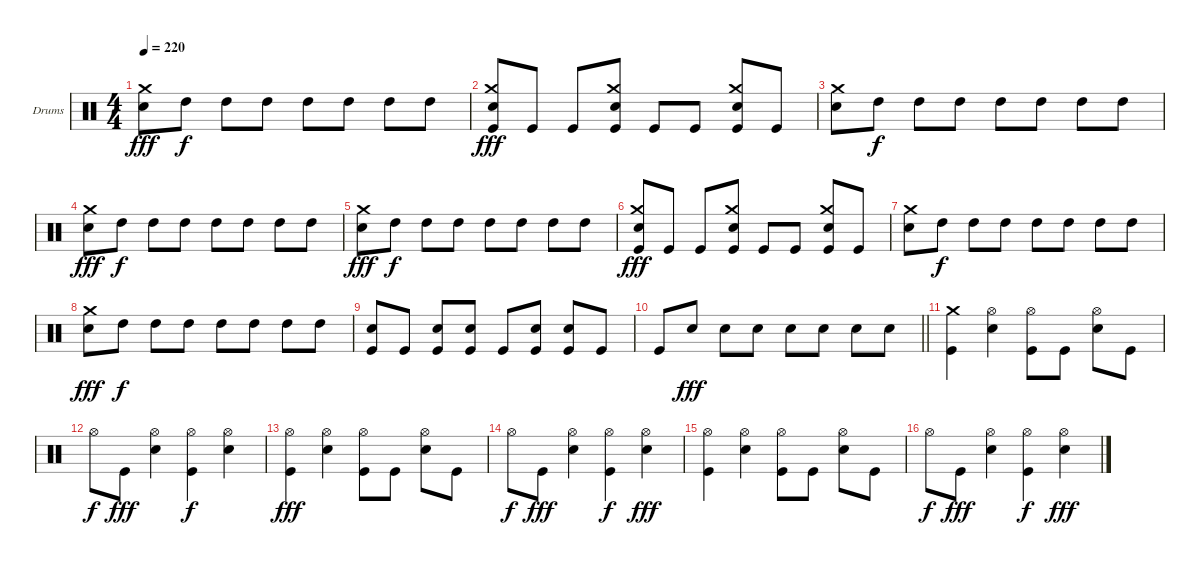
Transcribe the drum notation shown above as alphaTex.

\bracketExtendMode groupsimilarinstruments
\firstSystemTrackNameOrientation horizontal
\otherSystemsTrackNameOrientation horizontal
\track ("Stefan Schwarzmann" "Drums") {instrument percussion}
\staff {score}
\articulation defaults
\ts (4 4)
\tempo 220
\clef neutral
\ks c
("Snare (hit) 2" "Crash medium (hit)").8{dy fff} "High Tom (hit)".8{dy f} "High Tom (hit)".8 "High Tom (hit)".8 "High Tom (hit)".8 "High Tom (hit)".8 "High Tom (hit)".8 "High Tom (hit)".8 |
("Kick (hit)" "Snare (hit) 2" "Crash medium (hit)").8{dy fff} "Kick (hit)".8 "Kick (hit)".8 ("Kick (hit)" "Snare (hit) 2" "Crash medium (hit)").8 "Kick (hit)".8 "Kick (hit)".8 ("Kick (hit)" "Snare (hit) 2" "Crash medium (hit)").8 "Kick (hit)".8 |
("Snare (hit) 2" "Crash medium (hit)").8 "High Tom (hit)".8{dy f} "High Tom (hit)".8 "High Tom (hit)".8 "High Tom (hit)".8 "High Tom (hit)".8 "High Tom (hit)".8 "High Tom (hit)".8 |
("Snare (hit) 2" "Crash medium (hit)").8{dy fff} "High Tom (hit)".8{dy f} "High Tom (hit)".8 "High Tom (hit)".8 "High Tom (hit)".8 "High Tom (hit)".8 "High Tom (hit)".8 "High Tom (hit)".8 |
("Snare (hit) 2" "Crash medium (hit)").8{dy fff} "High Tom (hit)".8{dy f} "High Tom (hit)".8 "High Tom (hit)".8 "High Tom (hit)".8 "High Tom (hit)".8 "High Tom (hit)".8 "High Tom (hit)".8 |
("Kick (hit)" "Snare (hit) 2" "Crash medium (hit)").8{dy fff} "Kick (hit)".8 "Kick (hit)".8 ("Kick (hit)" "Snare (hit) 2" "Crash medium (hit)").8 "Kick (hit)".8 "Kick (hit)".8 ("Kick (hit)" "Snare (hit) 2" "Crash medium (hit)").8 "Kick (hit)".8 |
("Snare (hit) 2" "Crash medium (hit)").8 "High Tom (hit)".8{dy f} "High Tom (hit)".8 "High Tom (hit)".8 "High Tom (hit)".8 "High Tom (hit)".8 "High Tom (hit)".8 "High Tom (hit)".8 |
("Snare (hit) 2" "Crash medium (hit)").8{dy fff} "High Tom (hit)".8{dy f} "High Tom (hit)".8 "High Tom (hit)".8 "High Tom (hit)".8 "High Tom (hit)".8 "High Tom (hit)".8 "High Tom (hit)".8 |
("Kick (hit)" "Snare (hit) 2").8 "Kick (hit)".8 ("Kick (hit)" "Snare (hit) 2").8 ("Kick (hit)" "Snare (hit) 2").8 "Kick (hit)".8 ("Kick (hit)" "Snare (hit) 2").8 ("Kick (hit)" "Snare (hit) 2").8 "Kick (hit)".8 |
\barLineRight lightlight "Kick (hit)".8 "Snare (hit) 2".8{dy fff} "Snare (hit) 2".8 "Snare (hit) 2".8 "Snare (hit) 2".8 "Snare (hit) 2".8 "Snare (hit) 2".8 "Snare (hit) 2".8
|
("Kick (hit)" "Crash medium (hit)").4 ("Snare (hit) 2" "Hi-Hat (open)").4 ("Kick (hit)" "Hi-Hat (open)").8 "Kick (hit)".8 ("Snare (hit) 2" "Hi-Hat (open)").8 "Kick (hit)".8 |
"Hi-Hat (open)".8{dy f} "Kick (hit)".8{dy fff} ("Snare (hit) 2" "Hi-Hat (open)").4 ("Kick (hit)" "Hi-Hat (open)").4{dy f} ("Snare (hit) 2" "Hi-Hat (open)").4 |
("Kick (hit)" "Hi-Hat (open)").4{dy fff} ("Snare (hit) 2" "Hi-Hat (open)").4 ("Kick (hit)" "Hi-Hat (open)").8 "Kick (hit)".8 ("Snare (hit) 2" "Hi-Hat (open)").8 "Kick (hit)".8 |
"Hi-Hat (open)".8{dy f} "Kick (hit)".8{dy fff} ("Snare (hit) 2" "Hi-Hat (open)").4 ("Kick (hit)" "Hi-Hat (open)").4{dy f} ("Snare (hit) 2" "Hi-Hat (open)").4{dy fff} |
("Kick (hit)" "Hi-Hat (open)").4 ("Snare (hit) 2" "Hi-Hat (open)").4 ("Kick (hit)" "Hi-Hat (open)").8 "Kick (hit)".8 ("Snare (hit) 2" "Hi-Hat (open)").8 "Kick (hit)".8 |
"Hi-Hat (open)".8{dy f} "Kick (hit)".8{dy fff} ("Snare (hit) 2" "Hi-Hat (open)").4 ("Kick (hit)" "Hi-Hat (open)").4{dy f} ("Snare (hit) 2" "Hi-Hat (open)").4{dy fff}
